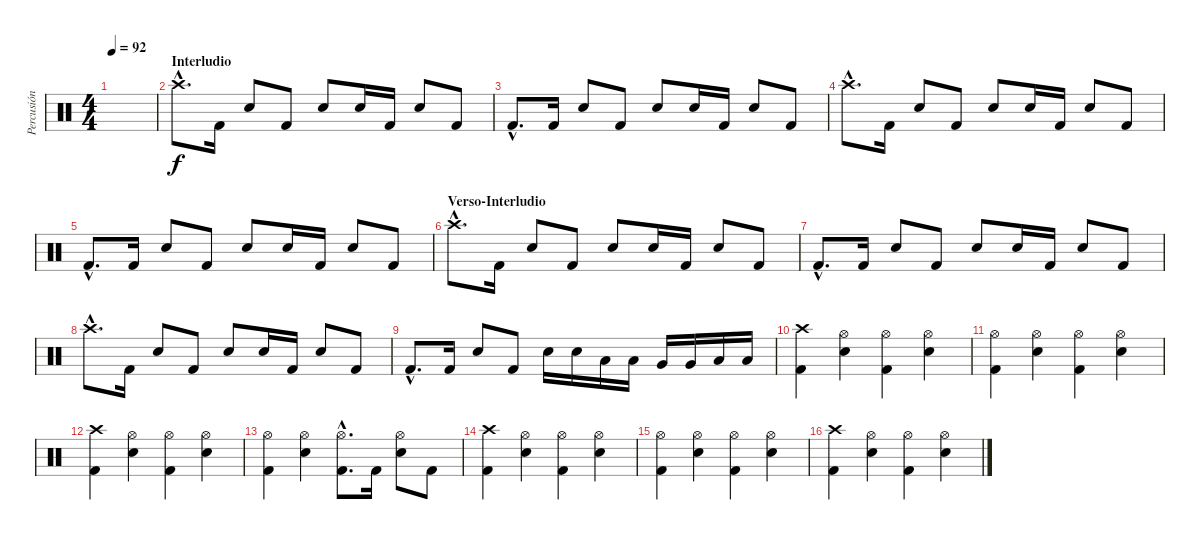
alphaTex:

\track ("Percusión" "Percusión") {instrument percussion}
\staff {score}
\articulation defaults
\ts (4 4)
\tempo 92
\clef neutral
\ks c
|
\section ("" "Interludio")
"Crash high (hit)"{hac}.8{d} "Kick (hit) 2".16 "Snare (hit) 2".8 "Kick (hit) 2".8 "Snare (hit) 2".8 "Snare (hit) 2".16 "Kick (hit) 2".16 "Snare (hit) 2".8 "Kick (hit) 2".8 |
"Kick (hit) 2"{hac}.8{d} "Kick (hit) 2".16 "Snare (hit) 2".8 "Kick (hit) 2".8 "Snare (hit) 2".8 "Snare (hit) 2".16 "Kick (hit) 2".16 "Snare (hit) 2".8 "Kick (hit) 2".8 |
"Crash high (hit)"{hac}.8{d} "Kick (hit) 2".16 "Snare (hit) 2".8 "Kick (hit) 2".8 "Snare (hit) 2".8 "Snare (hit) 2".16 "Kick (hit) 2".16 "Snare (hit) 2".8 "Kick (hit) 2".8 |
"Kick (hit) 2"{hac}.8{d} "Kick (hit) 2".16 "Snare (hit) 2".8 "Kick (hit) 2".8 "Snare (hit) 2".8 "Snare (hit) 2".16 "Kick (hit) 2".16 "Snare (hit) 2".8 "Kick (hit) 2".8 |
\section ("" "Verso-Interludio")
"Crash high (hit)"{hac}.8{d} "Kick (hit) 2".16 "Snare (hit) 2".8 "Kick (hit) 2".8 "Snare (hit) 2".8 "Snare (hit) 2".16 "Kick (hit) 2".16 "Snare (hit) 2".8 "Kick (hit) 2".8 |
"Kick (hit) 2"{hac}.8{d} "Kick (hit) 2".16 "Snare (hit) 2".8 "Kick (hit) 2".8 "Snare (hit) 2".8 "Snare (hit) 2".16 "Kick (hit) 2".16 "Snare (hit) 2".8 "Kick (hit) 2".8 |
"Crash high (hit)"{hac}.8{d} "Kick (hit) 2".16 "Snare (hit) 2".8 "Kick (hit) 2".8 "Snare (hit) 2".8 "Snare (hit) 2".16 "Kick (hit) 2".16 "Snare (hit) 2".8 "Kick (hit) 2".8 |
"Kick (hit) 2"{hac}.8{d} "Kick (hit) 2".16 "Snare (hit) 2".8 "Kick (hit) 2".8 "Snare (hit) 2".16 "Snare (hit) 2".16 "Low Tom (hit)".16 "Low Tom (hit)".16 "Very Low Tom (hit)".16 "Very Low Tom (hit)".16 "Low Floor Tom (hit)".16 "Low Floor Tom (hit)".16 |
("Crash high (hit)" "Kick (hit) 2").4 ("Hi-Hat (open)" "Snare (hit) 2").4 ("Hi-Hat (open)" "Kick (hit) 2").4 ("Hi-Hat (open)" "Snare (hit) 2").4 |
("Hi-Hat (open)" "Kick (hit) 2").4 ("Hi-Hat (open)" "Snare (hit) 2").4 ("Hi-Hat (open)" "Kick (hit) 2").4 ("Hi-Hat (open)" "Snare (hit) 2").4 |
("Crash high (hit)" "Kick (hit) 2").4 ("Hi-Hat (open)" "Snare (hit) 2").4 ("Hi-Hat (open)" "Kick (hit) 2").4 ("Hi-Hat (open)" "Snare (hit) 2").4 |
("Hi-Hat (open)" "Kick (hit) 2").4 ("Hi-Hat (open)" "Snare (hit) 2").4 ("Hi-Hat (open)"{hac} "Kick (hit) 2"{hac}).8{d} "Kick (hit) 2".16 ("Hi-Hat (open)" "Snare (hit) 2").8 "Kick (hit) 2".8 |
("Crash high (hit)" "Kick (hit) 2").4 ("Hi-Hat (open)" "Snare (hit) 2").4 ("Hi-Hat (open)" "Kick (hit) 2").4 ("Hi-Hat (open)" "Snare (hit) 2").4 |
("Hi-Hat (open)" "Kick (hit) 2").4 ("Hi-Hat (open)" "Snare (hit) 2").4 ("Hi-Hat (open)" "Kick (hit) 2").4 ("Hi-Hat (open)" "Snare (hit) 2").4 |
("Crash high (hit)" "Kick (hit) 2").4 ("Hi-Hat (open)" "Snare (hit) 2").4 ("Hi-Hat (open)" "Kick (hit) 2").4 ("Hi-Hat (open)" "Snare (hit) 2").4
